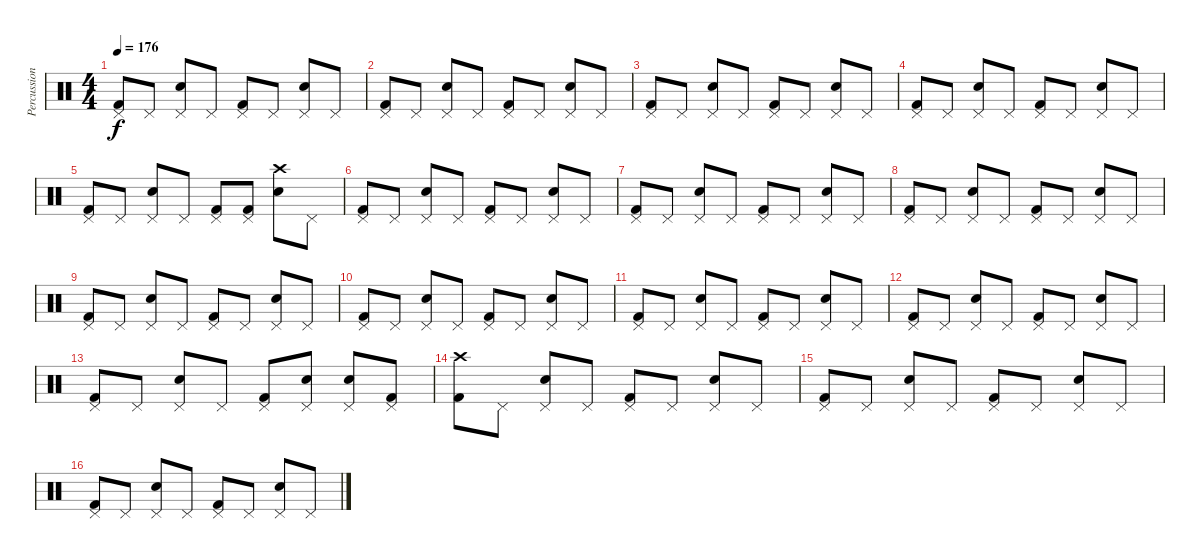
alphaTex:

\track ("Percussions" "Percussion") {instrument percussion}
\staff {score}
\articulation defaults
\ts (4 4)
\tempo 176
\clef neutral
\ks c
("Pedal Hi-Hat (hit)" "Kick (hit) 2").8{dy f} "Pedal Hi-Hat (hit)".8 ("Pedal Hi-Hat (hit)" "Electric Snare (hit)").8 "Pedal Hi-Hat (hit)".8 ("Pedal Hi-Hat (hit)" "Kick (hit) 2").8 "Pedal Hi-Hat (hit)".8 ("Pedal Hi-Hat (hit)" "Electric Snare (hit)").8 "Pedal Hi-Hat (hit)".8 |
("Pedal Hi-Hat (hit)" "Kick (hit) 2").8 "Pedal Hi-Hat (hit)".8 ("Pedal Hi-Hat (hit)" "Electric Snare (hit)").8 "Pedal Hi-Hat (hit)".8 ("Pedal Hi-Hat (hit)" "Kick (hit) 2").8 "Pedal Hi-Hat (hit)".8 ("Pedal Hi-Hat (hit)" "Electric Snare (hit)").8 "Pedal Hi-Hat (hit)".8 |
("Pedal Hi-Hat (hit)" "Kick (hit) 2").8 "Pedal Hi-Hat (hit)".8 ("Pedal Hi-Hat (hit)" "Electric Snare (hit)").8 "Pedal Hi-Hat (hit)".8 ("Pedal Hi-Hat (hit)" "Kick (hit) 2").8 "Pedal Hi-Hat (hit)".8 ("Pedal Hi-Hat (hit)" "Electric Snare (hit)").8 "Pedal Hi-Hat (hit)".8 |
("Pedal Hi-Hat (hit)" "Kick (hit) 2").8 "Pedal Hi-Hat (hit)".8 ("Pedal Hi-Hat (hit)" "Electric Snare (hit)").8 "Pedal Hi-Hat (hit)".8 ("Pedal Hi-Hat (hit)" "Kick (hit) 2").8 "Pedal Hi-Hat (hit)".8 ("Pedal Hi-Hat (hit)" "Electric Snare (hit)").8 "Pedal Hi-Hat (hit)".8 |
("Pedal Hi-Hat (hit)" "Kick (hit) 2").8 "Pedal Hi-Hat (hit)".8 ("Pedal Hi-Hat (hit)" "Electric Snare (hit)").8 "Pedal Hi-Hat (hit)".8 ("Pedal Hi-Hat (hit)" "Kick (hit) 2").8 ("Pedal Hi-Hat (hit)" "Kick (hit) 2").8 ("Crash high (hit)" "Electric Snare (hit)").8 "Pedal Hi-Hat (hit)".8 |
("Pedal Hi-Hat (hit)" "Kick (hit) 2").8 "Pedal Hi-Hat (hit)".8 ("Pedal Hi-Hat (hit)" "Electric Snare (hit)").8 "Pedal Hi-Hat (hit)".8 ("Pedal Hi-Hat (hit)" "Kick (hit) 2").8 "Pedal Hi-Hat (hit)".8 ("Pedal Hi-Hat (hit)" "Electric Snare (hit)").8 "Pedal Hi-Hat (hit)".8 |
("Pedal Hi-Hat (hit)" "Kick (hit) 2").8 "Pedal Hi-Hat (hit)".8 ("Pedal Hi-Hat (hit)" "Electric Snare (hit)").8 "Pedal Hi-Hat (hit)".8 ("Pedal Hi-Hat (hit)" "Kick (hit) 2").8 "Pedal Hi-Hat (hit)".8 ("Pedal Hi-Hat (hit)" "Electric Snare (hit)").8 "Pedal Hi-Hat (hit)".8 |
("Pedal Hi-Hat (hit)" "Kick (hit) 2").8 "Pedal Hi-Hat (hit)".8 ("Pedal Hi-Hat (hit)" "Electric Snare (hit)").8 "Pedal Hi-Hat (hit)".8 ("Pedal Hi-Hat (hit)" "Kick (hit) 2").8 "Pedal Hi-Hat (hit)".8 ("Pedal Hi-Hat (hit)" "Electric Snare (hit)").8 "Pedal Hi-Hat (hit)".8 |
("Pedal Hi-Hat (hit)" "Kick (hit) 2").8 "Pedal Hi-Hat (hit)".8 ("Pedal Hi-Hat (hit)" "Electric Snare (hit)").8 "Pedal Hi-Hat (hit)".8 ("Pedal Hi-Hat (hit)" "Kick (hit) 2").8 "Pedal Hi-Hat (hit)".8 ("Pedal Hi-Hat (hit)" "Electric Snare (hit)").8 "Pedal Hi-Hat (hit)".8 |
("Pedal Hi-Hat (hit)" "Kick (hit) 2").8 "Pedal Hi-Hat (hit)".8 ("Pedal Hi-Hat (hit)" "Electric Snare (hit)").8 "Pedal Hi-Hat (hit)".8 ("Pedal Hi-Hat (hit)" "Kick (hit) 2").8 "Pedal Hi-Hat (hit)".8 ("Pedal Hi-Hat (hit)" "Electric Snare (hit)").8 "Pedal Hi-Hat (hit)".8 |
("Pedal Hi-Hat (hit)" "Kick (hit) 2").8 "Pedal Hi-Hat (hit)".8 ("Pedal Hi-Hat (hit)" "Electric Snare (hit)").8 "Pedal Hi-Hat (hit)".8 ("Pedal Hi-Hat (hit)" "Kick (hit) 2").8 "Pedal Hi-Hat (hit)".8 ("Pedal Hi-Hat (hit)" "Electric Snare (hit)").8 "Pedal Hi-Hat (hit)".8 |
("Pedal Hi-Hat (hit)" "Kick (hit) 2").8 "Pedal Hi-Hat (hit)".8 ("Pedal Hi-Hat (hit)" "Electric Snare (hit)").8 "Pedal Hi-Hat (hit)".8 ("Pedal Hi-Hat (hit)" "Kick (hit) 2").8 "Pedal Hi-Hat (hit)".8 ("Pedal Hi-Hat (hit)" "Electric Snare (hit)").8 "Pedal Hi-Hat (hit)".8 |
("Pedal Hi-Hat (hit)" "Kick (hit) 2").8 "Pedal Hi-Hat (hit)".8 ("Pedal Hi-Hat (hit)" "Electric Snare (hit)").8 "Pedal Hi-Hat (hit)".8 ("Pedal Hi-Hat (hit)" "Kick (hit) 2").8 ("Pedal Hi-Hat (hit)" "Electric Snare (hit)").8 ("Pedal Hi-Hat (hit)" "Electric Snare (hit)").8 ("Pedal Hi-Hat (hit)" "Kick (hit) 2").8 |
("Crash high (hit)" "Kick (hit) 2").8 "Pedal Hi-Hat (hit)".8 ("Pedal Hi-Hat (hit)" "Electric Snare (hit)").8 "Pedal Hi-Hat (hit)".8 ("Pedal Hi-Hat (hit)" "Kick (hit) 2").8 "Pedal Hi-Hat (hit)".8 ("Pedal Hi-Hat (hit)" "Electric Snare (hit)").8 "Pedal Hi-Hat (hit)".8 |
("Pedal Hi-Hat (hit)" "Kick (hit) 2").8 "Pedal Hi-Hat (hit)".8 ("Pedal Hi-Hat (hit)" "Electric Snare (hit)").8 "Pedal Hi-Hat (hit)".8 ("Pedal Hi-Hat (hit)" "Kick (hit) 2").8 "Pedal Hi-Hat (hit)".8 ("Pedal Hi-Hat (hit)" "Electric Snare (hit)").8 "Pedal Hi-Hat (hit)".8 |
("Pedal Hi-Hat (hit)" "Kick (hit) 2").8 "Pedal Hi-Hat (hit)".8 ("Pedal Hi-Hat (hit)" "Electric Snare (hit)").8 "Pedal Hi-Hat (hit)".8 ("Pedal Hi-Hat (hit)" "Kick (hit) 2").8 "Pedal Hi-Hat (hit)".8 ("Pedal Hi-Hat (hit)" "Electric Snare (hit)").8 "Pedal Hi-Hat (hit)".8
